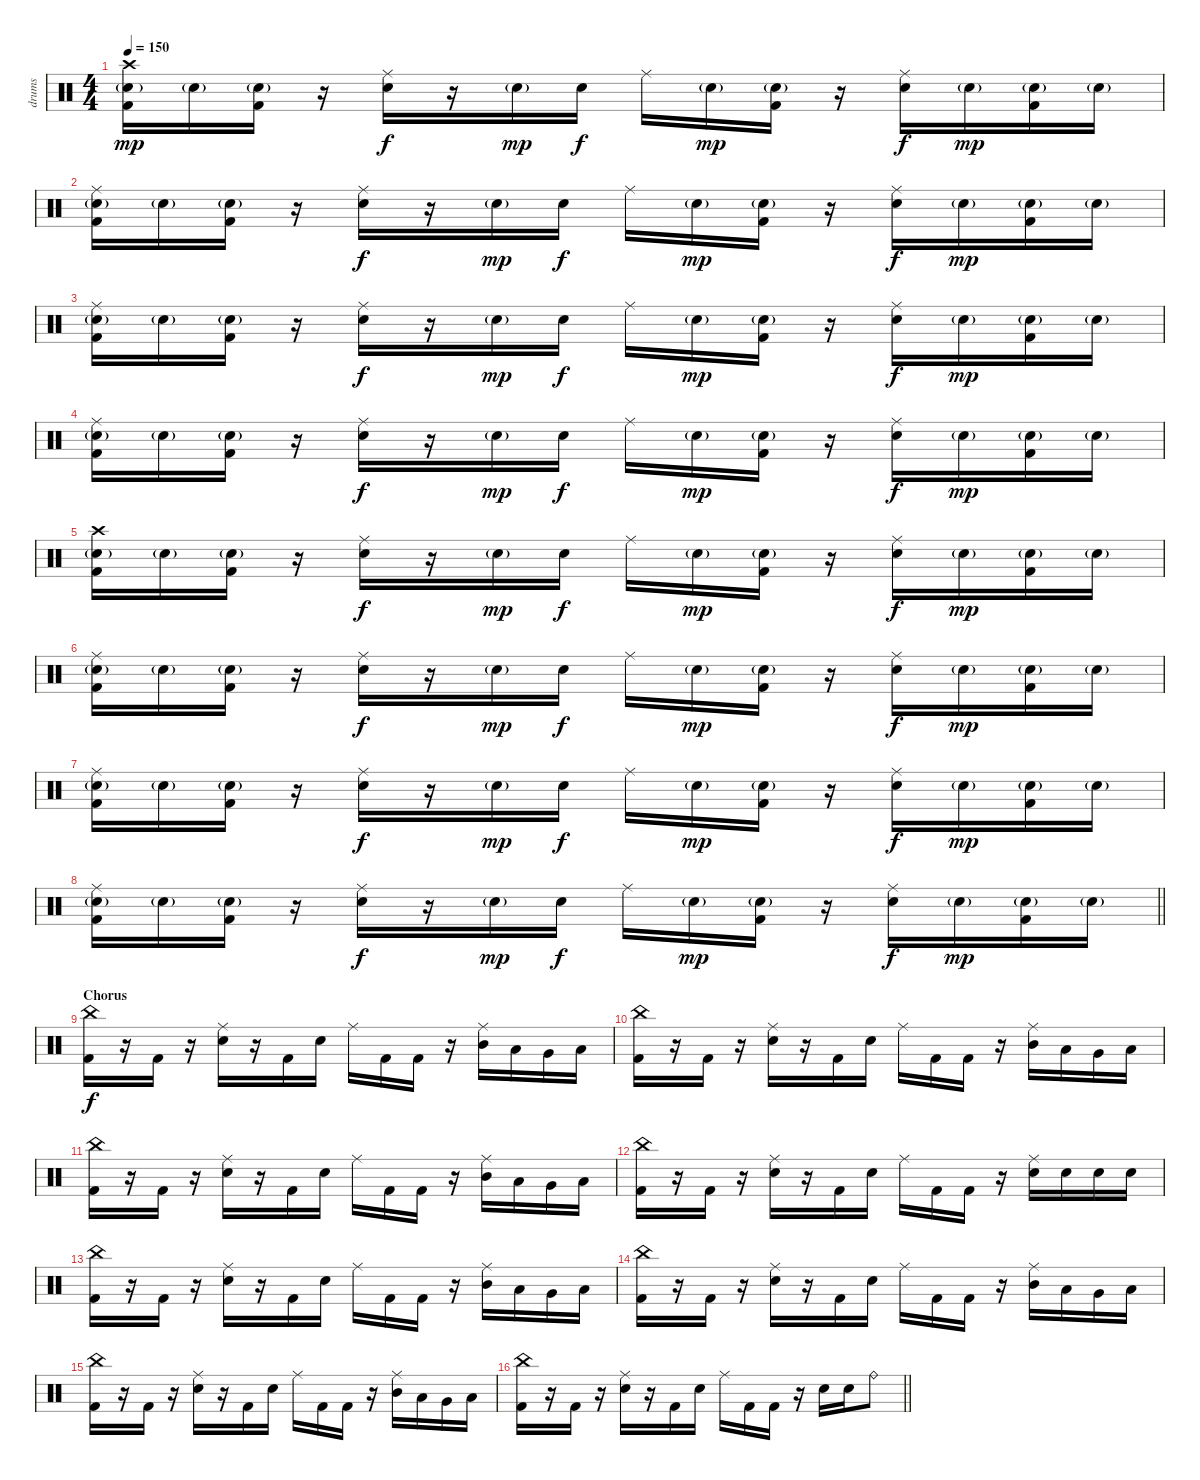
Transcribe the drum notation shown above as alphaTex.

\track ("drums" "drums") {instrument percussion}
\staff {score}
\articulation defaults
\ts (4 4)
\section ("" "")
\tempo 150
\clef neutral
\ks c
("Crash high (hit)" "Snare (hit) 2"{g} "Kick (hit) 2").16{dy mp} "Snare (hit) 2"{g}.16 ("Snare (hit) 2"{g} "Kick (hit) 2").16 r.16 ("Ride (middle)" "Snare (hit) 2").16{dy f} r.16 "Snare (hit) 2"{g}.16{dy mp} "Snare (hit) 2".16{dy f} "Ride (middle)".16 "Snare (hit) 2"{g}.16{dy mp} ("Snare (hit) 2"{g} "Kick (hit) 2").16 r.16 ("Ride (middle)" "Snare (hit) 2").16{dy f} "Snare (hit) 2"{g}.16{dy mp} ("Snare (hit) 2"{g} "Kick (hit) 2").16 "Snare (hit) 2"{g}.16 |
("Ride (middle)" "Snare (hit) 2"{g} "Kick (hit) 2").16 "Snare (hit) 2"{g}.16 ("Snare (hit) 2"{g} "Kick (hit) 2").16 r.16 ("Ride (middle)" "Snare (hit) 2").16{dy f} r.16 "Snare (hit) 2"{g}.16{dy mp} "Snare (hit) 2".16{dy f} "Ride (middle)".16 "Snare (hit) 2"{g}.16{dy mp} ("Snare (hit) 2"{g} "Kick (hit) 2").16 r.16 ("Ride (middle)" "Snare (hit) 2").16{dy f} "Snare (hit) 2"{g}.16{dy mp} ("Snare (hit) 2"{g} "Kick (hit) 2").16 "Snare (hit) 2"{g}.16 |
("Ride (middle)" "Snare (hit) 2"{g} "Kick (hit) 2").16 "Snare (hit) 2"{g}.16 ("Snare (hit) 2"{g} "Kick (hit) 2").16 r.16 ("Ride (middle)" "Snare (hit) 2").16{dy f} r.16 "Snare (hit) 2"{g}.16{dy mp} "Snare (hit) 2".16{dy f} "Ride (middle)".16 "Snare (hit) 2"{g}.16{dy mp} ("Snare (hit) 2"{g} "Kick (hit) 2").16 r.16 ("Ride (middle)" "Snare (hit) 2").16{dy f} "Snare (hit) 2"{g}.16{dy mp} ("Snare (hit) 2"{g} "Kick (hit) 2").16 "Snare (hit) 2"{g}.16 |
("Ride (middle)" "Snare (hit) 2"{g} "Kick (hit) 2").16 "Snare (hit) 2"{g}.16 ("Snare (hit) 2"{g} "Kick (hit) 2").16 r.16 ("Ride (middle)" "Snare (hit) 2").16{dy f} r.16 "Snare (hit) 2"{g}.16{dy mp} "Snare (hit) 2".16{dy f} "Ride (middle)".16 "Snare (hit) 2"{g}.16{dy mp} ("Snare (hit) 2"{g} "Kick (hit) 2").16 r.16 ("Ride (middle)" "Snare (hit) 2").16{dy f} "Snare (hit) 2"{g}.16{dy mp} ("Snare (hit) 2"{g} "Kick (hit) 2").16 "Snare (hit) 2"{g}.16 |
("Crash high (hit)" "Snare (hit) 2"{g} "Kick (hit) 2").16 "Snare (hit) 2"{g}.16 ("Snare (hit) 2"{g} "Kick (hit) 2").16 r.16 ("Ride (middle)" "Snare (hit) 2").16{dy f} r.16 "Snare (hit) 2"{g}.16{dy mp} "Snare (hit) 2".16{dy f} "Ride (middle)".16 "Snare (hit) 2"{g}.16{dy mp} ("Snare (hit) 2"{g} "Kick (hit) 2").16 r.16 ("Ride (middle)" "Snare (hit) 2").16{dy f} "Snare (hit) 2"{g}.16{dy mp} ("Snare (hit) 2"{g} "Kick (hit) 2").16 "Snare (hit) 2"{g}.16 |
("Ride (middle)" "Snare (hit) 2"{g} "Kick (hit) 2").16 "Snare (hit) 2"{g}.16 ("Snare (hit) 2"{g} "Kick (hit) 2").16 r.16 ("Ride (middle)" "Snare (hit) 2").16{dy f} r.16 "Snare (hit) 2"{g}.16{dy mp} "Snare (hit) 2".16{dy f} "Ride (middle)".16 "Snare (hit) 2"{g}.16{dy mp} ("Snare (hit) 2"{g} "Kick (hit) 2").16 r.16 ("Ride (middle)" "Snare (hit) 2").16{dy f} "Snare (hit) 2"{g}.16{dy mp} ("Snare (hit) 2"{g} "Kick (hit) 2").16 "Snare (hit) 2"{g}.16 |
("Ride (middle)" "Snare (hit) 2"{g} "Kick (hit) 2").16 "Snare (hit) 2"{g}.16 ("Snare (hit) 2"{g} "Kick (hit) 2").16 r.16 ("Ride (middle)" "Snare (hit) 2").16{dy f} r.16 "Snare (hit) 2"{g}.16{dy mp} "Snare (hit) 2".16{dy f} "Ride (middle)".16 "Snare (hit) 2"{g}.16{dy mp} ("Snare (hit) 2"{g} "Kick (hit) 2").16 r.16 ("Ride (middle)" "Snare (hit) 2").16{dy f} "Snare (hit) 2"{g}.16{dy mp} ("Snare (hit) 2"{g} "Kick (hit) 2").16 "Snare (hit) 2"{g}.16 |
\barLineRight lightlight
("Ride (middle)" "Snare (hit) 2"{g} "Kick (hit) 2").16 "Snare (hit) 2"{g}.16 ("Snare (hit) 2"{g} "Kick (hit) 2").16 r.16 ("Ride (middle)" "Snare (hit) 2").16{dy f} r.16 "Snare (hit) 2"{g}.16{dy mp} "Snare (hit) 2".16{dy f} "Ride (middle)".16 "Snare (hit) 2"{g}.16{dy mp} ("Snare (hit) 2"{g} "Kick (hit) 2").16 r.16 ("Ride (middle)" "Snare (hit) 2").16{dy f} "Snare (hit) 2"{g}.16{dy mp} ("Snare (hit) 2"{g} "Kick (hit) 2").16 "Snare (hit) 2"{g}.16 |
\section ("" "Chorus")
("China (hit)" "Kick (hit) 2").16{dy f} r.16 "Kick (hit) 2".16 r.16 ("Ride (middle)" "Snare (hit) 2").16 r.16 "Kick (hit) 2".16 "Snare (hit) 2".16 "Ride (middle)".16 "Kick (hit) 2".16 "Kick (hit) 2".16 r.16 ("Ride (middle)" "Mid Tom (hit)").16 "Low Tom (hit)".16 "Very Low Tom (hit)".16 "Low Floor Tom (hit)".16 |
("China (hit)" "Kick (hit) 2").16 r.16 "Kick (hit) 2".16 r.16 ("Ride (middle)" "Snare (hit) 2").16 r.16 "Kick (hit) 2".16 "Snare (hit) 2".16 "Ride (middle)".16 "Kick (hit) 2".16 "Kick (hit) 2".16 r.16 ("Ride (middle)" "Mid Tom (hit)").16 "Low Tom (hit)".16 "Very Low Tom (hit)".16 "Low Floor Tom (hit)".16 |
("China (hit)" "Kick (hit) 2").16 r.16 "Kick (hit) 2".16 r.16 ("Ride (middle)" "Snare (hit) 2").16 r.16 "Kick (hit) 2".16 "Snare (hit) 2".16 "Ride (middle)".16 "Kick (hit) 2".16 "Kick (hit) 2".16 r.16 ("Ride (middle)" "Mid Tom (hit)").16 "Low Tom (hit)".16 "Very Low Tom (hit)".16 "Low Floor Tom (hit)".16 |
("China (hit)" "Kick (hit) 2").16 r.16 "Kick (hit) 2".16 r.16 ("Ride (middle)" "Snare (hit) 2").16 r.16 "Kick (hit) 2".16 "Snare (hit) 2".16 "Ride (middle)".16 "Kick (hit) 2".16 "Kick (hit) 2".16 r.16 ("Ride (middle)" "Snare (hit) 2").16 "Snare (hit) 2".16 "Snare (hit) 2".16 "Snare (hit) 2".16 |
("China (hit)" "Kick (hit) 2").16 r.16 "Kick (hit) 2".16 r.16 ("Ride (middle)" "Snare (hit) 2").16 r.16 "Kick (hit) 2".16 "Snare (hit) 2".16 "Ride (middle)".16 "Kick (hit) 2".16 "Kick (hit) 2".16 r.16 ("Ride (middle)" "Mid Tom (hit)").16 "Low Tom (hit)".16 "Very Low Tom (hit)".16 "Low Floor Tom (hit)".16 |
("China (hit)" "Kick (hit) 2").16 r.16 "Kick (hit) 2".16 r.16 ("Ride (middle)" "Snare (hit) 2").16 r.16 "Kick (hit) 2".16 "Snare (hit) 2".16 "Ride (middle)".16 "Kick (hit) 2".16 "Kick (hit) 2".16 r.16 ("Ride (middle)" "Mid Tom (hit)").16 "Low Tom (hit)".16 "Very Low Tom (hit)".16 "Low Floor Tom (hit)".16 |
("China (hit)" "Kick (hit) 2").16 r.16 "Kick (hit) 2".16 r.16 ("Ride (middle)" "Snare (hit) 2").16 r.16 "Kick (hit) 2".16 "Snare (hit) 2".16 "Ride (middle)".16 "Kick (hit) 2".16 "Kick (hit) 2".16 r.16 ("Ride (middle)" "Mid Tom (hit)").16 "Low Tom (hit)".16 "Very Low Tom (hit)".16 "Low Floor Tom (hit)".16 |
\barLineRight lightlight
("China (hit)" "Kick (hit) 2").16 r.16 "Kick (hit) 2".16 r.16 ("Ride (middle)" "Snare (hit) 2").16 r.16 "Kick (hit) 2".16 "Snare (hit) 2".16 "Ride (middle)".16 "Kick (hit) 2".16 "Kick (hit) 2".16 r.16 "Snare (hit) 2".16 "Snare (hit) 2".16 "Ride (bell)".8
